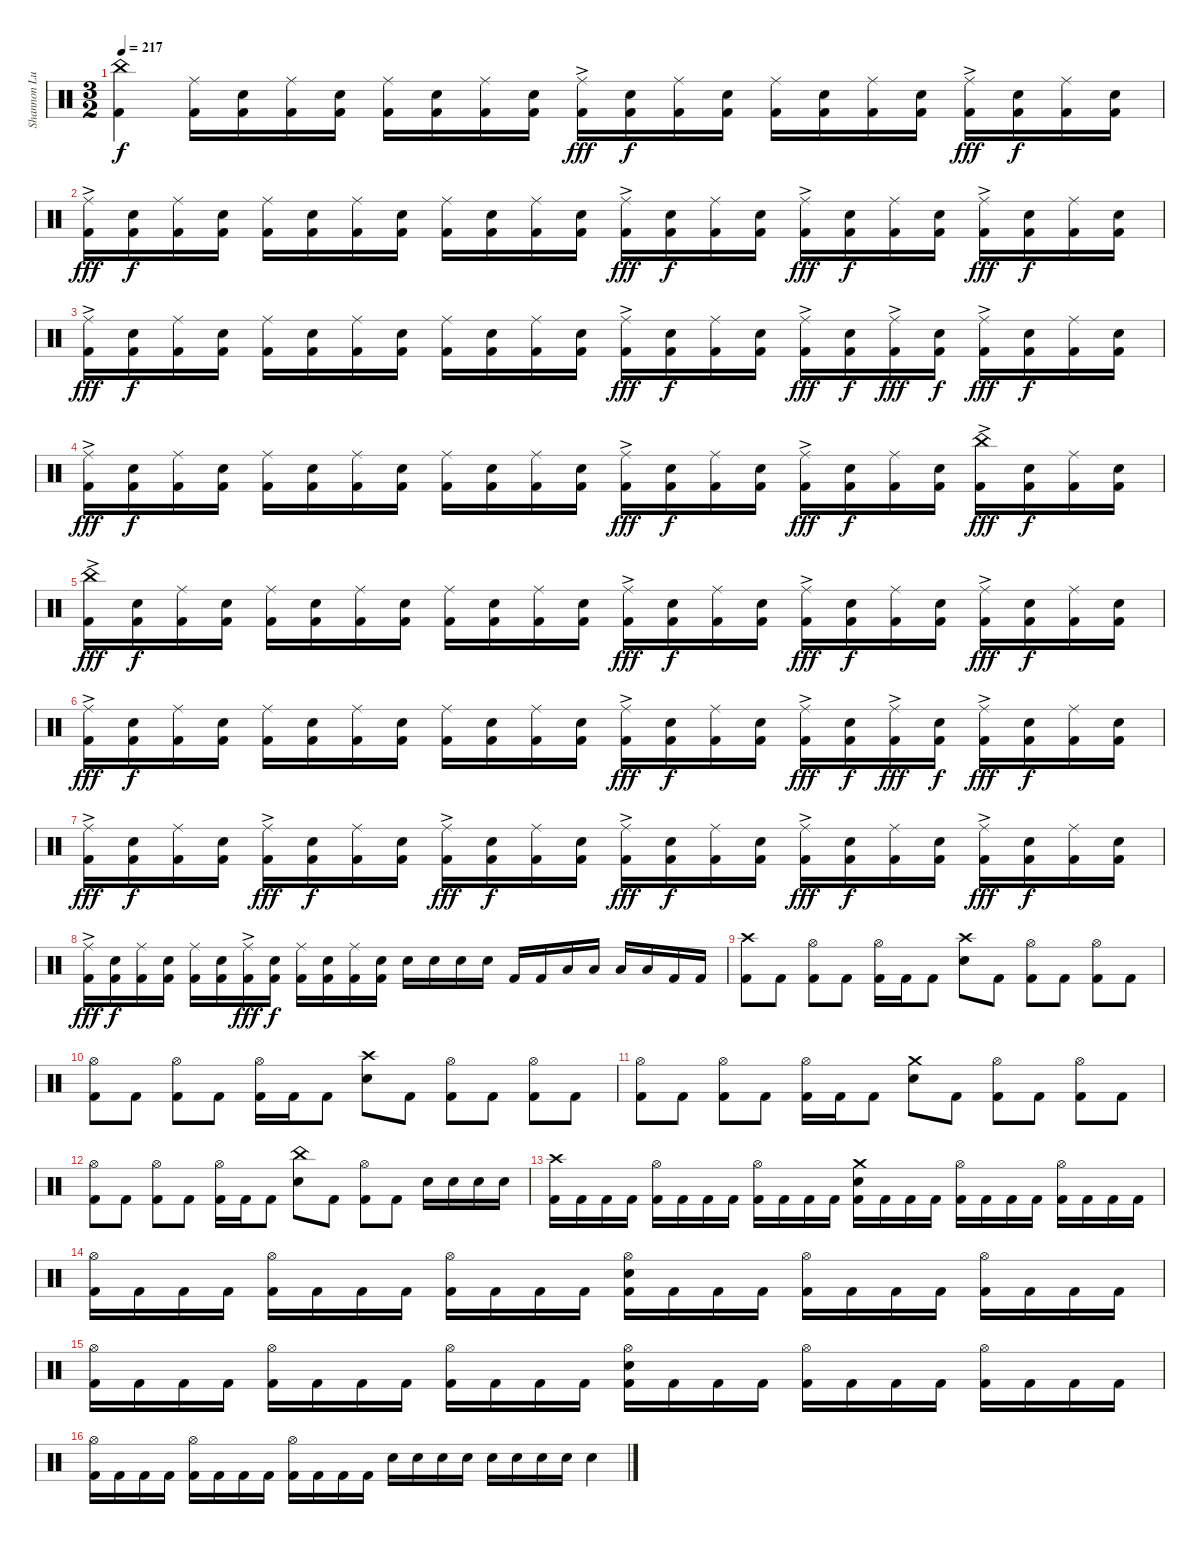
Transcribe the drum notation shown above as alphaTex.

\track ("Shannon Lucas [Drums (Since 2007)]" "Shannon Lu") {instrument percussion}
\staff {score}
\articulation defaults
\ts (3 2)
\tempo 217
\clef neutral
\ks c
("China (hit)" "Kick (hit) 2").4{dy f} ("Ride (middle)" "Kick (hit) 2").16 ("Snare (hit) 2" "Kick (hit) 2").16 ("Ride (middle)" "Kick (hit) 2").16 ("Snare (hit) 2" "Kick (hit) 2").16 ("Ride (middle)" "Kick (hit) 2").16 ("Snare (hit) 2" "Kick (hit) 2").16 ("Ride (middle)" "Kick (hit) 2").16 ("Snare (hit) 2" "Kick (hit) 2").16 ("Ride (middle)"{ac} "Kick (hit) 2").16{dy fff} ("Snare (hit) 2" "Kick (hit) 2").16{dy f} ("Ride (middle)" "Kick (hit) 2").16 ("Snare (hit) 2" "Kick (hit) 2").16 ("Ride (middle)" "Kick (hit) 2").16 ("Snare (hit) 2" "Kick (hit) 2").16 ("Ride (middle)" "Kick (hit) 2").16 ("Snare (hit) 2" "Kick (hit) 2").16 ("Ride (middle)"{ac} "Kick (hit) 2").16{dy fff} ("Snare (hit) 2" "Kick (hit) 2").16{dy f} ("Ride (middle)" "Kick (hit) 2").16 ("Snare (hit) 2" "Kick (hit) 2").16 |
("Ride (middle)"{ac} "Kick (hit) 2").16{dy fff} ("Snare (hit) 2" "Kick (hit) 2").16{dy f} ("Ride (middle)" "Kick (hit) 2").16 ("Snare (hit) 2" "Kick (hit) 2").16 ("Ride (middle)" "Kick (hit) 2").16 ("Snare (hit) 2" "Kick (hit) 2").16 ("Ride (middle)" "Kick (hit) 2").16 ("Snare (hit) 2" "Kick (hit) 2").16 ("Ride (middle)" "Kick (hit) 2").16 ("Snare (hit) 2" "Kick (hit) 2").16 ("Ride (middle)" "Kick (hit) 2").16 ("Snare (hit) 2" "Kick (hit) 2").16 ("Ride (middle)"{ac} "Kick (hit) 2").16{dy fff} ("Snare (hit) 2" "Kick (hit) 2").16{dy f} ("Ride (middle)" "Kick (hit) 2").16 ("Snare (hit) 2" "Kick (hit) 2").16 ("Ride (middle)"{ac} "Kick (hit) 2").16{dy fff} ("Snare (hit) 2" "Kick (hit) 2").16{dy f} ("Ride (middle)" "Kick (hit) 2").16 ("Snare (hit) 2" "Kick (hit) 2").16 ("Ride (middle)"{ac} "Kick (hit) 2").16{dy fff} ("Snare (hit) 2" "Kick (hit) 2").16{dy f} ("Ride (middle)" "Kick (hit) 2").16 ("Snare (hit) 2" "Kick (hit) 2").16 |
("Ride (middle)"{ac} "Kick (hit) 2").16{dy fff} ("Snare (hit) 2" "Kick (hit) 2").16{dy f} ("Ride (middle)" "Kick (hit) 2").16 ("Snare (hit) 2" "Kick (hit) 2").16 ("Ride (middle)" "Kick (hit) 2").16 ("Snare (hit) 2" "Kick (hit) 2").16 ("Ride (middle)" "Kick (hit) 2").16 ("Snare (hit) 2" "Kick (hit) 2").16 ("Ride (middle)" "Kick (hit) 2").16 ("Snare (hit) 2" "Kick (hit) 2").16 ("Ride (middle)" "Kick (hit) 2").16 ("Snare (hit) 2" "Kick (hit) 2").16 ("Ride (middle)"{ac} "Kick (hit) 2").16{dy fff} ("Snare (hit) 2" "Kick (hit) 2").16{dy f} ("Ride (middle)" "Kick (hit) 2").16 ("Snare (hit) 2" "Kick (hit) 2").16 ("Ride (middle)"{ac} "Kick (hit) 2").16{dy fff} ("Snare (hit) 2" "Kick (hit) 2").16{dy f} ("Ride (middle)"{ac} "Kick (hit) 2").16{dy fff} ("Snare (hit) 2" "Kick (hit) 2").16{dy f} ("Ride (middle)"{ac} "Kick (hit) 2").16{dy fff} ("Snare (hit) 2" "Kick (hit) 2").16{dy f} ("Ride (middle)" "Kick (hit) 2").16 ("Snare (hit) 2" "Kick (hit) 2").16 |
("Ride (middle)"{ac} "Kick (hit) 2").16{dy fff} ("Snare (hit) 2" "Kick (hit) 2").16{dy f} ("Ride (middle)" "Kick (hit) 2").16 ("Snare (hit) 2" "Kick (hit) 2").16 ("Ride (middle)" "Kick (hit) 2").16 ("Snare (hit) 2" "Kick (hit) 2").16 ("Ride (middle)" "Kick (hit) 2").16 ("Snare (hit) 2" "Kick (hit) 2").16 ("Ride (middle)" "Kick (hit) 2").16 ("Snare (hit) 2" "Kick (hit) 2").16 ("Ride (middle)" "Kick (hit) 2").16 ("Snare (hit) 2" "Kick (hit) 2").16 ("Ride (middle)"{ac} "Kick (hit) 2").16{dy fff} ("Snare (hit) 2" "Kick (hit) 2").16{dy f} ("Ride (middle)" "Kick (hit) 2").16 ("Snare (hit) 2" "Kick (hit) 2").16 ("Ride (middle)"{ac} "Kick (hit) 2").16{dy fff} ("Snare (hit) 2" "Kick (hit) 2").16{dy f} ("Ride (middle)" "Kick (hit) 2").16 ("Snare (hit) 2" "Kick (hit) 2").16 ("China (hit)"{ac} "Kick (hit) 2").16{dy fff} ("Snare (hit) 2" "Kick (hit) 2").16{dy f} ("Ride (middle)" "Kick (hit) 2").16 ("Snare (hit) 2" "Kick (hit) 2").16 |
("China (hit)"{ac} "Kick (hit) 2").16{dy fff} ("Snare (hit) 2" "Kick (hit) 2").16{dy f} ("Ride (middle)" "Kick (hit) 2").16 ("Snare (hit) 2" "Kick (hit) 2").16 ("Ride (middle)" "Kick (hit) 2").16 ("Snare (hit) 2" "Kick (hit) 2").16 ("Ride (middle)" "Kick (hit) 2").16 ("Snare (hit) 2" "Kick (hit) 2").16 ("Ride (middle)" "Kick (hit) 2").16 ("Snare (hit) 2" "Kick (hit) 2").16 ("Ride (middle)" "Kick (hit) 2").16 ("Snare (hit) 2" "Kick (hit) 2").16 ("Ride (middle)"{ac} "Kick (hit) 2").16{dy fff} ("Snare (hit) 2" "Kick (hit) 2").16{dy f} ("Ride (middle)" "Kick (hit) 2").16 ("Snare (hit) 2" "Kick (hit) 2").16 ("Ride (middle)"{ac} "Kick (hit) 2").16{dy fff} ("Snare (hit) 2" "Kick (hit) 2").16{dy f} ("Ride (middle)" "Kick (hit) 2").16 ("Snare (hit) 2" "Kick (hit) 2").16 ("Ride (middle)"{ac} "Kick (hit) 2").16{dy fff} ("Snare (hit) 2" "Kick (hit) 2").16{dy f} ("Ride (middle)" "Kick (hit) 2").16 ("Snare (hit) 2" "Kick (hit) 2").16 |
("Ride (middle)"{ac} "Kick (hit) 2").16{dy fff} ("Snare (hit) 2" "Kick (hit) 2").16{dy f} ("Ride (middle)" "Kick (hit) 2").16 ("Snare (hit) 2" "Kick (hit) 2").16 ("Ride (middle)" "Kick (hit) 2").16 ("Snare (hit) 2" "Kick (hit) 2").16 ("Ride (middle)" "Kick (hit) 2").16 ("Snare (hit) 2" "Kick (hit) 2").16 ("Ride (middle)" "Kick (hit) 2").16 ("Snare (hit) 2" "Kick (hit) 2").16 ("Ride (middle)" "Kick (hit) 2").16 ("Snare (hit) 2" "Kick (hit) 2").16 ("Ride (middle)"{ac} "Kick (hit) 2").16{dy fff} ("Snare (hit) 2" "Kick (hit) 2").16{dy f} ("Ride (middle)" "Kick (hit) 2").16 ("Snare (hit) 2" "Kick (hit) 2").16 ("Ride (middle)"{ac} "Kick (hit) 2").16{dy fff} ("Snare (hit) 2" "Kick (hit) 2").16{dy f} ("Ride (middle)"{ac} "Kick (hit) 2").16{dy fff} ("Snare (hit) 2" "Kick (hit) 2").16{dy f} ("Ride (middle)"{ac} "Kick (hit) 2").16{dy fff} ("Snare (hit) 2" "Kick (hit) 2").16{dy f} ("Ride (middle)" "Kick (hit) 2").16 ("Snare (hit) 2" "Kick (hit) 2").16 |
("Ride (middle)"{ac} "Kick (hit) 2").16{dy fff} ("Snare (hit) 2" "Kick (hit) 2").16{dy f} ("Ride (middle)" "Kick (hit) 2").16 ("Snare (hit) 2" "Kick (hit) 2").16 ("Ride (middle)"{ac} "Kick (hit) 2").16{dy fff} ("Snare (hit) 2" "Kick (hit) 2").16{dy f} ("Ride (middle)" "Kick (hit) 2").16 ("Snare (hit) 2" "Kick (hit) 2").16 ("Ride (middle)"{ac} "Kick (hit) 2").16{dy fff} ("Snare (hit) 2" "Kick (hit) 2").16{dy f} ("Ride (middle)" "Kick (hit) 2").16 ("Snare (hit) 2" "Kick (hit) 2").16 ("Ride (middle)"{ac} "Kick (hit) 2").16{dy fff} ("Snare (hit) 2" "Kick (hit) 2").16{dy f} ("Ride (middle)" "Kick (hit) 2").16 ("Snare (hit) 2" "Kick (hit) 2").16 ("Ride (middle)"{ac} "Kick (hit) 2").16{dy fff} ("Snare (hit) 2" "Kick (hit) 2").16{dy f} ("Ride (middle)" "Kick (hit) 2").16 ("Snare (hit) 2" "Kick (hit) 2").16 ("Ride (middle)"{ac} "Kick (hit) 2").16{dy fff} ("Snare (hit) 2" "Kick (hit) 2").16{dy f} ("Ride (middle)" "Kick (hit) 2").16 ("Snare (hit) 2" "Kick (hit) 2").16 |
("Ride (middle)"{ac} "Kick (hit) 2").16{dy fff} ("Snare (hit) 2" "Kick (hit) 2").16{dy f} ("Ride (middle)" "Kick (hit) 2").16 ("Snare (hit) 2" "Kick (hit) 2").16 ("Ride (middle)" "Kick (hit) 2").16 ("Snare (hit) 2" "Kick (hit) 2").16 ("Ride (middle)"{ac} "Kick (hit) 2").16{dy fff} ("Snare (hit) 2" "Kick (hit) 2").16{dy f} ("Ride (middle)" "Kick (hit) 2").16 ("Snare (hit) 2" "Kick (hit) 2").16 ("Ride (middle)" "Kick (hit) 2").16 ("Snare (hit) 2" "Kick (hit) 2").16 "Snare (hit) 2".16 "Snare (hit) 2".16 "Snare (hit) 2".16 "Snare (hit) 2".16 "Kick (hit) 2".16 "Kick (hit) 2".16 "Low Tom (hit)".16 "Low Tom (hit)".16 "Low Tom (hit)".16 "Low Tom (hit)".16 "Kick (hit) 2".16 "Kick (hit) 2".16 |
("Crash high (hit)" "Kick (hit) 2").8 "Kick (hit) 2".8 ("Hi-Hat (open)" "Kick (hit) 2").8 "Kick (hit) 2".8 ("Hi-Hat (open)" "Kick (hit) 2").16 "Kick (hit) 2".16 "Kick (hit) 2".8 ("Crash high (hit)" "Snare (hit) 2").8 "Kick (hit) 2".8 ("Hi-Hat (open)" "Kick (hit) 2").8 "Kick (hit) 2".8 ("Hi-Hat (open)" "Kick (hit) 2").8 "Kick (hit) 2".8 |
("Hi-Hat (open)" "Kick (hit) 2").8 "Kick (hit) 2".8 ("Hi-Hat (open)" "Kick (hit) 2").8 "Kick (hit) 2".8 ("Hi-Hat (open)" "Kick (hit) 2").16 "Kick (hit) 2".16 "Kick (hit) 2".8 ("Crash high (hit)" "Snare (hit) 2").8 "Kick (hit) 2".8 ("Hi-Hat (open)" "Kick (hit) 2").8 "Kick (hit) 2".8 ("Hi-Hat (open)" "Kick (hit) 2").8 "Kick (hit) 2".8 |
("Hi-Hat (open)" "Kick (hit) 2").8 "Kick (hit) 2".8 ("Hi-Hat (open)" "Kick (hit) 2").8 "Kick (hit) 2".8 ("Hi-Hat (open)" "Kick (hit) 2").16 "Kick (hit) 2".16 "Kick (hit) 2".8 ("Crash medium (hit)" "Snare (hit) 2").8 "Kick (hit) 2".8 ("Hi-Hat (open)" "Kick (hit) 2").8 "Kick (hit) 2".8 ("Hi-Hat (open)" "Kick (hit) 2").8 "Kick (hit) 2".8 |
("Hi-Hat (open)" "Kick (hit) 2").8 "Kick (hit) 2".8 ("Hi-Hat (open)" "Kick (hit) 2").8 "Kick (hit) 2".8 ("Hi-Hat (open)" "Kick (hit) 2").16 "Kick (hit) 2".16 "Kick (hit) 2".8 ("China (hit)" "Snare (hit) 2").8 "Kick (hit) 2".8 ("Hi-Hat (open)" "Kick (hit) 2").8 "Kick (hit) 2".8 "Snare (hit) 2".16 "Snare (hit) 2".16 "Snare (hit) 2".16 "Snare (hit) 2".16 |
("Crash high (hit)" "Kick (hit) 2").16 "Kick (hit) 2".16 "Kick (hit) 2".16 "Kick (hit) 2".16 ("Hi-Hat (open)" "Kick (hit) 2").16 "Kick (hit) 2".16 "Kick (hit) 2".16 "Kick (hit) 2".16 ("Hi-Hat (open)" "Kick (hit) 2").16 "Kick (hit) 2".16 "Kick (hit) 2".16 "Kick (hit) 2".16 ("Crash medium (hit)" "Snare (hit) 2" "Kick (hit) 2").16 "Kick (hit) 2".16 "Kick (hit) 2".16 "Kick (hit) 2".16 ("Hi-Hat (open)" "Kick (hit) 2").16 "Kick (hit) 2".16 "Kick (hit) 2".16 "Kick (hit) 2".16 ("Hi-Hat (open)" "Kick (hit) 2").16 "Kick (hit) 2".16 "Kick (hit) 2".16 "Kick (hit) 2".16 |
("Hi-Hat (open)" "Kick (hit) 2").16 "Kick (hit) 2".16 "Kick (hit) 2".16 "Kick (hit) 2".16 ("Hi-Hat (open)" "Kick (hit) 2").16 "Kick (hit) 2".16 "Kick (hit) 2".16 "Kick (hit) 2".16 ("Hi-Hat (open)" "Kick (hit) 2").16 "Kick (hit) 2".16 "Kick (hit) 2".16 "Kick (hit) 2".16 ("Hi-Hat (open)" "Snare (hit) 2" "Kick (hit) 2").16 "Kick (hit) 2".16 "Kick (hit) 2".16 "Kick (hit) 2".16 ("Hi-Hat (open)" "Kick (hit) 2").16 "Kick (hit) 2".16 "Kick (hit) 2".16 "Kick (hit) 2".16 ("Hi-Hat (open)" "Kick (hit) 2").16 "Kick (hit) 2".16 "Kick (hit) 2".16 "Kick (hit) 2".16 |
("Hi-Hat (open)" "Kick (hit) 2").16 "Kick (hit) 2".16 "Kick (hit) 2".16 "Kick (hit) 2".16 ("Hi-Hat (open)" "Kick (hit) 2").16 "Kick (hit) 2".16 "Kick (hit) 2".16 "Kick (hit) 2".16 ("Hi-Hat (open)" "Kick (hit) 2").16 "Kick (hit) 2".16 "Kick (hit) 2".16 "Kick (hit) 2".16 ("Hi-Hat (open)" "Snare (hit) 2" "Kick (hit) 2").16 "Kick (hit) 2".16 "Kick (hit) 2".16 "Kick (hit) 2".16 ("Hi-Hat (open)" "Kick (hit) 2").16 "Kick (hit) 2".16 "Kick (hit) 2".16 "Kick (hit) 2".16 ("Hi-Hat (open)" "Kick (hit) 2").16 "Kick (hit) 2".16 "Kick (hit) 2".16 "Kick (hit) 2".16 |
("Hi-Hat (open)" "Kick (hit) 2").16 "Kick (hit) 2".16 "Kick (hit) 2".16 "Kick (hit) 2".16 ("Hi-Hat (open)" "Kick (hit) 2").16 "Kick (hit) 2".16 "Kick (hit) 2".16 "Kick (hit) 2".16 ("Hi-Hat (open)" "Kick (hit) 2").16 "Kick (hit) 2".16 "Kick (hit) 2".16 "Kick (hit) 2".16 "Snare (hit) 2".16 "Snare (hit) 2".16 "Snare (hit) 2".16 "Snare (hit) 2".16 "Snare (hit) 2".16 "Snare (hit) 2".16 "Snare (hit) 2".16 "Snare (hit) 2".16 "Snare (hit) 2".4
